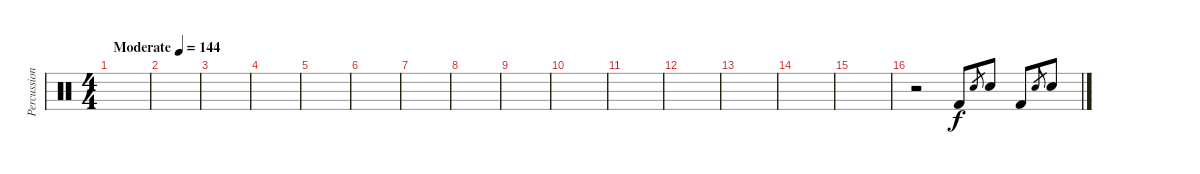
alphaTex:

\track ("Percussion" "Percussion") {instrument percussion}
\staff {score}
\articulation defaults
\ts (4 4)
\tempo (144 "Moderate")
\clef neutral
\ks c
|
|
|
|
|
|
|
|
|
|
|
|
|
|
|
r.2 "Kick (hit) 2".8 "Electric Snare (hit)".8{gr} "Electric Snare (hit)".8 "Kick (hit) 2".8 "Electric Snare (hit)".8{gr} "Electric Snare (hit)".8
